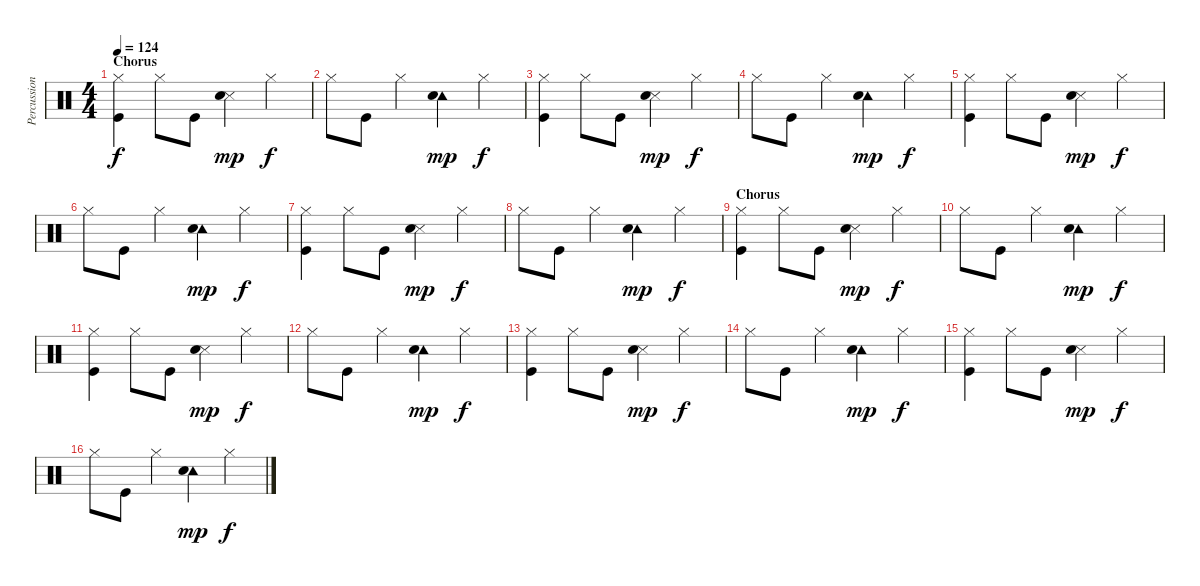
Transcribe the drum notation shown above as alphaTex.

\track ("Percussion" "Percussion") {instrument percussion}
\staff {score}
\articulation defaults
\ts (4 4)
\section ("" "Chorus")
\tempo 124
\clef neutral
\ks c
("Hi-Hat (closed)" "Kick (hit)").4{dy f} "Hi-Hat (closed)".8 "Kick (hit)".8 ("Snare (side stick) 3" "Snare (hit) 2").4{dy mp} "Hi-Hat (closed)".4{dy f} |
"Hi-Hat (closed)".8 "Kick (hit)".8 "Hi-Hat (closed)".4 ("Tambourine (hit)" "Snare (hit) 2").4{dy mp} "Hi-Hat (closed)".4{dy f} |
("Hi-Hat (closed)" "Kick (hit)").4 "Hi-Hat (closed)".8 "Kick (hit)".8 ("Snare (side stick) 3" "Snare (hit) 2").4{dy mp} "Hi-Hat (closed)".4{dy f} |
"Hi-Hat (closed)".8 "Kick (hit)".8 "Hi-Hat (closed)".4 ("Tambourine (hit)" "Snare (hit) 2").4{dy mp} "Hi-Hat (closed)".4{dy f} |
("Hi-Hat (closed)" "Kick (hit)").4 "Hi-Hat (closed)".8 "Kick (hit)".8 ("Snare (side stick) 3" "Snare (hit) 2").4{dy mp} "Hi-Hat (closed)".4{dy f} |
"Hi-Hat (closed)".8 "Kick (hit)".8 "Hi-Hat (closed)".4 ("Tambourine (hit)" "Snare (hit) 2").4{dy mp} "Hi-Hat (closed)".4{dy f} |
("Hi-Hat (closed)" "Kick (hit)").4 "Hi-Hat (closed)".8 "Kick (hit)".8 ("Snare (side stick) 3" "Snare (hit) 2").4{dy mp} "Hi-Hat (closed)".4{dy f} |
"Hi-Hat (closed)".8 "Kick (hit)".8 "Hi-Hat (closed)".4 ("Tambourine (hit)" "Snare (hit) 2").4{dy mp} "Hi-Hat (closed)".4{dy f} |
\section ("" "Chorus")
("Hi-Hat (closed)" "Kick (hit)").4 "Hi-Hat (closed)".8 "Kick (hit)".8 ("Snare (side stick) 3" "Snare (hit) 2").4{dy mp} "Hi-Hat (closed)".4{dy f} |
"Hi-Hat (closed)".8 "Kick (hit)".8 "Hi-Hat (closed)".4 ("Tambourine (hit)" "Snare (hit) 2").4{dy mp} "Hi-Hat (closed)".4{dy f} |
("Hi-Hat (closed)" "Kick (hit)").4 "Hi-Hat (closed)".8 "Kick (hit)".8 ("Snare (side stick) 3" "Snare (hit) 2").4{dy mp} "Hi-Hat (closed)".4{dy f} |
"Hi-Hat (closed)".8 "Kick (hit)".8 "Hi-Hat (closed)".4 ("Tambourine (hit)" "Snare (hit) 2").4{dy mp} "Hi-Hat (closed)".4{dy f} |
("Hi-Hat (closed)" "Kick (hit)").4 "Hi-Hat (closed)".8 "Kick (hit)".8 ("Snare (side stick) 3" "Snare (hit) 2").4{dy mp} "Hi-Hat (closed)".4{dy f} |
"Hi-Hat (closed)".8 "Kick (hit)".8 "Hi-Hat (closed)".4 ("Tambourine (hit)" "Snare (hit) 2").4{dy mp} "Hi-Hat (closed)".4{dy f} |
("Hi-Hat (closed)" "Kick (hit)").4 "Hi-Hat (closed)".8 "Kick (hit)".8 ("Snare (side stick) 3" "Snare (hit) 2").4{dy mp} "Hi-Hat (closed)".4{dy f} |
"Hi-Hat (closed)".8 "Kick (hit)".8 "Hi-Hat (closed)".4 ("Tambourine (hit)" "Snare (hit) 2").4{dy mp} "Hi-Hat (closed)".4{dy f}
